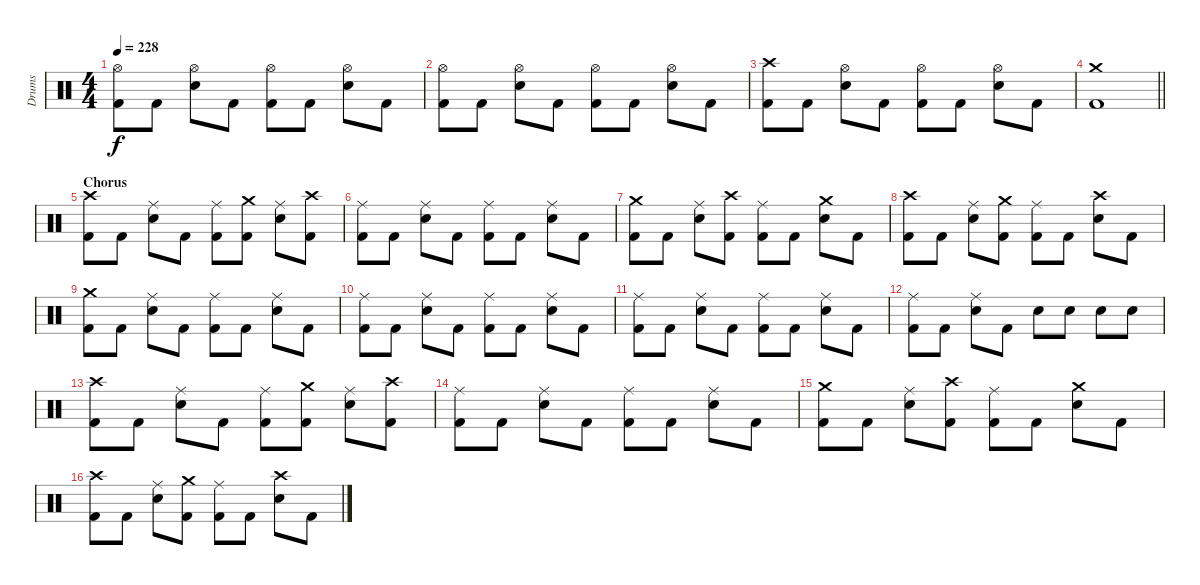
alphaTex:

\track ("Drums" "Drums") {instrument percussion}
\staff {score}
\articulation defaults
\ts (4 4)
\tempo 228
\clef neutral
\ks c
("Hi-Hat (open)" "Kick (hit) 2").8{dy f} "Kick (hit) 2".8 ("Hi-Hat (open)" "Snare (hit) 2").8 "Kick (hit) 2".8 ("Hi-Hat (open)" "Kick (hit) 2").8 "Kick (hit) 2".8 ("Hi-Hat (open)" "Snare (hit) 2").8 "Kick (hit) 2".8 |
("Hi-Hat (open)" "Kick (hit) 2").8 "Kick (hit) 2".8 ("Hi-Hat (open)" "Snare (hit) 2").8 "Kick (hit) 2".8 ("Hi-Hat (open)" "Kick (hit) 2").8 "Kick (hit) 2".8 ("Hi-Hat (open)" "Snare (hit) 2").8 "Kick (hit) 2".8 |
("Crash high (hit)" "Kick (hit) 2").8 "Kick (hit) 2".8 ("Hi-Hat (open)" "Snare (hit) 2").8 "Kick (hit) 2".8 ("Hi-Hat (open)" "Kick (hit) 2").8 "Kick (hit) 2".8 ("Hi-Hat (open)" "Snare (hit) 2").8 "Kick (hit) 2".8 |
\barLineRight lightlight
("Crash medium (hit)" "Kick (hit) 2").1 |
\section ("" "Chorus")
("Crash high (hit)" "Kick (hit) 2").8 "Kick (hit) 2".8 ("Ride (middle)" "Snare (hit) 2").8 "Kick (hit) 2".8 ("Ride (middle)" "Kick (hit) 2").8 ("Crash medium (hit)" "Kick (hit) 2").8 ("Ride (middle)" "Snare (hit) 2").8 ("Crash high (hit)" "Kick (hit) 2").8 |
("Ride (middle)" "Kick (hit) 2").8 "Kick (hit) 2".8 ("Ride (middle)" "Snare (hit) 2").8 "Kick (hit) 2".8 ("Ride (middle)" "Kick (hit) 2").8 "Kick (hit) 2".8 ("Ride (middle)" "Snare (hit) 2").8 "Kick (hit) 2".8 |
("Crash medium (hit)" "Kick (hit) 2").8 "Kick (hit) 2".8 ("Ride (middle)" "Snare (hit) 2").8 ("Crash high (hit)" "Kick (hit) 2").8 ("Ride (middle)" "Kick (hit) 2").8 "Kick (hit) 2".8 ("Crash medium (hit)" "Snare (hit) 2").8 "Kick (hit) 2".8 |
("Crash high (hit)" "Kick (hit) 2").8 "Kick (hit) 2".8 ("Ride (middle)" "Snare (hit) 2").8 ("Crash medium (hit)" "Kick (hit) 2").8 ("Ride (middle)" "Kick (hit) 2").8 "Kick (hit) 2".8 ("Crash high (hit)" "Snare (hit) 2").8 "Kick (hit) 2".8 |
("Crash medium (hit)" "Kick (hit) 2").8 "Kick (hit) 2".8 ("Ride (middle)" "Snare (hit) 2").8 "Kick (hit) 2".8 ("Ride (middle)" "Kick (hit) 2").8 "Kick (hit) 2".8 ("Ride (middle)" "Snare (hit) 2").8 "Kick (hit) 2".8 |
("Ride (middle)" "Kick (hit) 2").8 "Kick (hit) 2".8 ("Ride (middle)" "Snare (hit) 2").8 "Kick (hit) 2".8 ("Ride (middle)" "Kick (hit) 2").8 "Kick (hit) 2".8 ("Ride (middle)" "Snare (hit) 2").8 "Kick (hit) 2".8 |
("Ride (middle)" "Kick (hit) 2").8 "Kick (hit) 2".8 ("Ride (middle)" "Snare (hit) 2").8 "Kick (hit) 2".8 ("Ride (middle)" "Kick (hit) 2").8 "Kick (hit) 2".8 ("Ride (middle)" "Snare (hit) 2").8 "Kick (hit) 2".8 |
("Ride (middle)" "Kick (hit) 2").8 "Kick (hit) 2".8 ("Ride (middle)" "Snare (hit) 2").8 "Kick (hit) 2".8 "Snare (hit) 2".8 "Snare (hit) 2".8 "Snare (hit) 2".8 "Snare (hit) 2".8 |
("Crash high (hit)" "Kick (hit) 2").8 "Kick (hit) 2".8 ("Ride (middle)" "Snare (hit) 2").8 "Kick (hit) 2".8 ("Ride (middle)" "Kick (hit) 2").8 ("Crash medium (hit)" "Kick (hit) 2").8 ("Ride (middle)" "Snare (hit) 2").8 ("Crash high (hit)" "Kick (hit) 2").8 |
("Ride (middle)" "Kick (hit) 2").8 "Kick (hit) 2".8 ("Ride (middle)" "Snare (hit) 2").8 "Kick (hit) 2".8 ("Ride (middle)" "Kick (hit) 2").8 "Kick (hit) 2".8 ("Ride (middle)" "Snare (hit) 2").8 "Kick (hit) 2".8 |
("Crash medium (hit)" "Kick (hit) 2").8 "Kick (hit) 2".8 ("Ride (middle)" "Snare (hit) 2").8 ("Crash high (hit)" "Kick (hit) 2").8 ("Ride (middle)" "Kick (hit) 2").8 "Kick (hit) 2".8 ("Crash medium (hit)" "Snare (hit) 2").8 "Kick (hit) 2".8 |
("Crash high (hit)" "Kick (hit) 2").8 "Kick (hit) 2".8 ("Ride (middle)" "Snare (hit) 2").8 ("Crash medium (hit)" "Kick (hit) 2").8 ("Ride (middle)" "Kick (hit) 2").8 "Kick (hit) 2".8 ("Crash high (hit)" "Snare (hit) 2").8 "Kick (hit) 2".8
